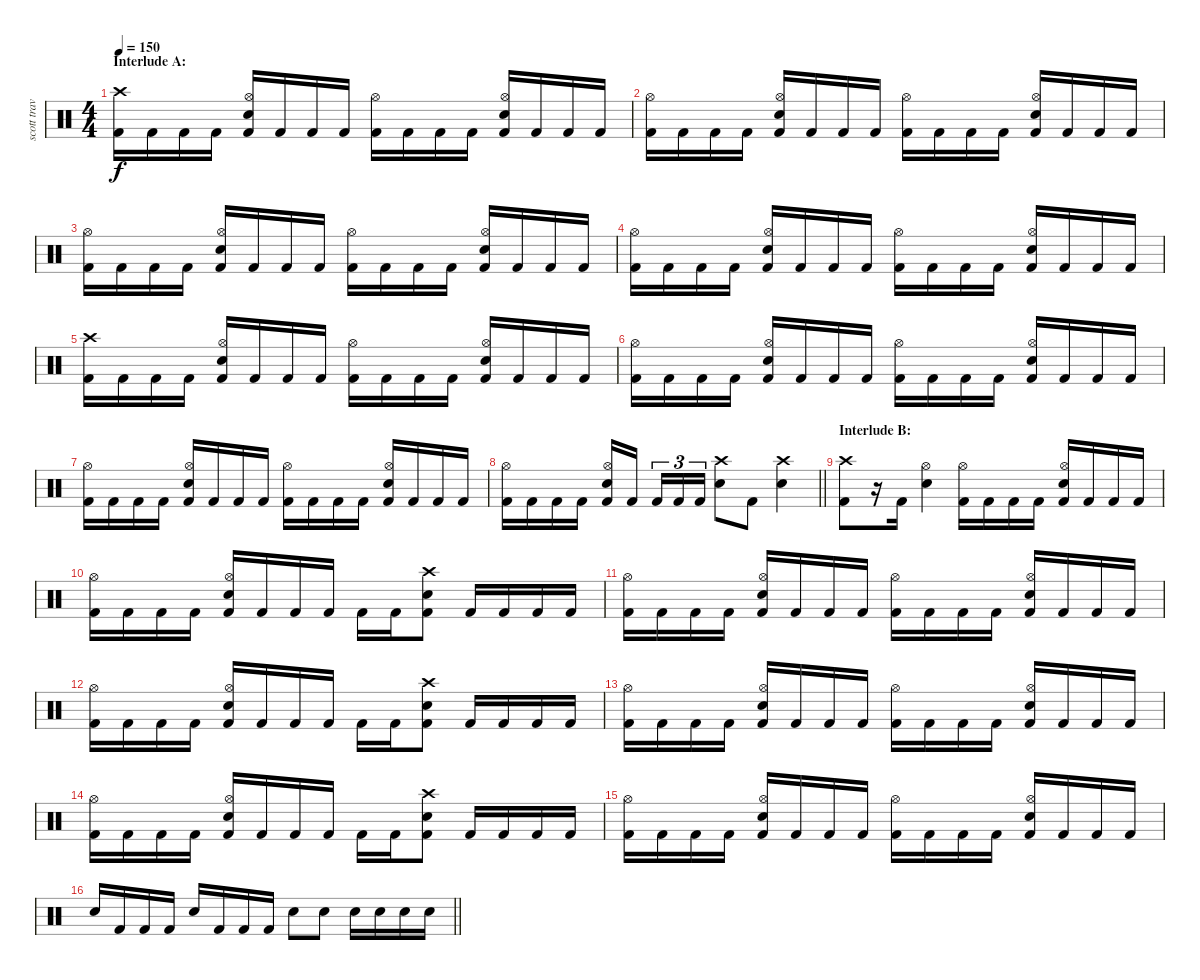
\track ("scott travis" "scott trav") {instrument percussion}
\staff {score}
\articulation defaults
\ts (4 4)
\section ("" "Interlude A:")
\tempo 150
\clef neutral
\ks c
("Crash high (hit)" "Kick (hit) 2").16{dy f} "Kick (hit) 2".16 "Kick (hit) 2".16 "Kick (hit) 2".16 ("Hi-Hat (open)" "Snare (hit) 2" "Kick (hit) 2").16 "Kick (hit) 2".16 "Kick (hit) 2".16 "Kick (hit) 2".16 ("Hi-Hat (open)" "Kick (hit) 2").16 "Kick (hit) 2".16 "Kick (hit) 2".16 "Kick (hit) 2".16 ("Hi-Hat (open)" "Snare (hit) 2" "Kick (hit) 2").16 "Kick (hit) 2".16 "Kick (hit) 2".16 "Kick (hit) 2".16 |
("Hi-Hat (open)" "Kick (hit) 2").16 "Kick (hit) 2".16 "Kick (hit) 2".16 "Kick (hit) 2".16 ("Hi-Hat (open)" "Snare (hit) 2" "Kick (hit) 2").16 "Kick (hit) 2".16 "Kick (hit) 2".16 "Kick (hit) 2".16 ("Hi-Hat (open)" "Kick (hit) 2").16 "Kick (hit) 2".16 "Kick (hit) 2".16 "Kick (hit) 2".16 ("Hi-Hat (open)" "Snare (hit) 2" "Kick (hit) 2").16 "Kick (hit) 2".16 "Kick (hit) 2".16 "Kick (hit) 2".16 |
("Hi-Hat (open)" "Kick (hit) 2").16 "Kick (hit) 2".16 "Kick (hit) 2".16 "Kick (hit) 2".16 ("Hi-Hat (open)" "Snare (hit) 2" "Kick (hit) 2").16 "Kick (hit) 2".16 "Kick (hit) 2".16 "Kick (hit) 2".16 ("Hi-Hat (open)" "Kick (hit) 2").16 "Kick (hit) 2".16 "Kick (hit) 2".16 "Kick (hit) 2".16 ("Hi-Hat (open)" "Snare (hit) 2" "Kick (hit) 2").16 "Kick (hit) 2".16 "Kick (hit) 2".16 "Kick (hit) 2".16 |
("Hi-Hat (open)" "Kick (hit) 2").16 "Kick (hit) 2".16 "Kick (hit) 2".16 "Kick (hit) 2".16 ("Hi-Hat (open)" "Snare (hit) 2" "Kick (hit) 2").16 "Kick (hit) 2".16 "Kick (hit) 2".16 "Kick (hit) 2".16 ("Hi-Hat (open)" "Kick (hit) 2").16 "Kick (hit) 2".16 "Kick (hit) 2".16 "Kick (hit) 2".16 ("Hi-Hat (open)" "Snare (hit) 2" "Kick (hit) 2").16 "Kick (hit) 2".16 "Kick (hit) 2".16 "Kick (hit) 2".16 |
("Crash high (hit)" "Kick (hit) 2").16 "Kick (hit) 2".16 "Kick (hit) 2".16 "Kick (hit) 2".16 ("Hi-Hat (open)" "Snare (hit) 2" "Kick (hit) 2").16 "Kick (hit) 2".16 "Kick (hit) 2".16 "Kick (hit) 2".16 ("Hi-Hat (open)" "Kick (hit) 2").16 "Kick (hit) 2".16 "Kick (hit) 2".16 "Kick (hit) 2".16 ("Hi-Hat (open)" "Snare (hit) 2" "Kick (hit) 2").16 "Kick (hit) 2".16 "Kick (hit) 2".16 "Kick (hit) 2".16 |
("Hi-Hat (open)" "Kick (hit) 2").16 "Kick (hit) 2".16 "Kick (hit) 2".16 "Kick (hit) 2".16 ("Hi-Hat (open)" "Snare (hit) 2" "Kick (hit) 2").16 "Kick (hit) 2".16 "Kick (hit) 2".16 "Kick (hit) 2".16 ("Hi-Hat (open)" "Kick (hit) 2").16 "Kick (hit) 2".16 "Kick (hit) 2".16 "Kick (hit) 2".16 ("Hi-Hat (open)" "Snare (hit) 2" "Kick (hit) 2").16 "Kick (hit) 2".16 "Kick (hit) 2".16 "Kick (hit) 2".16 |
("Hi-Hat (open)" "Kick (hit) 2").16 "Kick (hit) 2".16 "Kick (hit) 2".16 "Kick (hit) 2".16 ("Hi-Hat (open)" "Snare (hit) 2" "Kick (hit) 2").16 "Kick (hit) 2".16 "Kick (hit) 2".16 "Kick (hit) 2".16 ("Hi-Hat (open)" "Kick (hit) 2").16 "Kick (hit) 2".16 "Kick (hit) 2".16 "Kick (hit) 2".16 ("Hi-Hat (open)" "Snare (hit) 2" "Kick (hit) 2").16 "Kick (hit) 2".16 "Kick (hit) 2".16 "Kick (hit) 2".16 |
\barLineRight lightlight
("Hi-Hat (open)" "Kick (hit) 2").16 "Kick (hit) 2".16 "Kick (hit) 2".16 "Kick (hit) 2".16 ("Hi-Hat (open)" "Snare (hit) 2" "Kick (hit) 2").16 "Kick (hit) 2".16{beam splitsecondary} "Kick (hit) 2".16{tu (3 2)} "Kick (hit) 2".16{tu (3 2)} "Kick (hit) 2".16{tu (3 2)} ("Crash high (hit)" "Snare (hit) 2").8 "Kick (hit) 2".8 ("Crash high (hit)" "Snare (hit) 2").4 |
\section ("" "Interlude B:")
("Crash high (hit)" "Kick (hit) 2").8 r.16 "Kick (hit) 2".16 ("Hi-Hat (open)" "Snare (hit) 2").4 ("Hi-Hat (open)" "Kick (hit) 2").16 "Kick (hit) 2".16 "Kick (hit) 2".16 "Kick (hit) 2".16 ("Hi-Hat (open)" "Snare (hit) 2" "Kick (hit) 2").16 "Kick (hit) 2".16 "Kick (hit) 2".16 "Kick (hit) 2".16 |
("Hi-Hat (open)" "Kick (hit) 2").16 "Kick (hit) 2".16 "Kick (hit) 2".16 "Kick (hit) 2".16 ("Hi-Hat (open)" "Snare (hit) 2" "Kick (hit) 2").16 "Kick (hit) 2".16 "Kick (hit) 2".16 "Kick (hit) 2".16 "Kick (hit) 2".16 "Kick (hit) 2".16 ("Crash high (hit)" "Snare (hit) 2" "Kick (hit) 2").8 "Kick (hit) 2".16 "Kick (hit) 2".16 "Kick (hit) 2".16 "Kick (hit) 2".16 |
("Hi-Hat (open)" "Kick (hit) 2").16 "Kick (hit) 2".16 "Kick (hit) 2".16 "Kick (hit) 2".16 ("Hi-Hat (open)" "Snare (hit) 2" "Kick (hit) 2").16 "Kick (hit) 2".16 "Kick (hit) 2".16 "Kick (hit) 2".16 ("Hi-Hat (open)" "Kick (hit) 2").16 "Kick (hit) 2".16 "Kick (hit) 2".16 "Kick (hit) 2".16 ("Hi-Hat (open)" "Snare (hit) 2" "Kick (hit) 2").16 "Kick (hit) 2".16 "Kick (hit) 2".16 "Kick (hit) 2".16 |
("Hi-Hat (open)" "Kick (hit) 2").16 "Kick (hit) 2".16 "Kick (hit) 2".16 "Kick (hit) 2".16 ("Hi-Hat (open)" "Snare (hit) 2" "Kick (hit) 2").16 "Kick (hit) 2".16 "Kick (hit) 2".16 "Kick (hit) 2".16 "Kick (hit) 2".16 "Kick (hit) 2".16 ("Crash high (hit)" "Snare (hit) 2" "Kick (hit) 2").8 "Kick (hit) 2".16 "Kick (hit) 2".16 "Kick (hit) 2".16 "Kick (hit) 2".16 |
("Hi-Hat (open)" "Kick (hit) 2").16 "Kick (hit) 2".16 "Kick (hit) 2".16 "Kick (hit) 2".16 ("Hi-Hat (open)" "Snare (hit) 2" "Kick (hit) 2").16 "Kick (hit) 2".16 "Kick (hit) 2".16 "Kick (hit) 2".16 ("Hi-Hat (open)" "Kick (hit) 2").16 "Kick (hit) 2".16 "Kick (hit) 2".16 "Kick (hit) 2".16 ("Hi-Hat (open)" "Snare (hit) 2" "Kick (hit) 2").16 "Kick (hit) 2".16 "Kick (hit) 2".16 "Kick (hit) 2".16 |
("Hi-Hat (open)" "Kick (hit) 2").16 "Kick (hit) 2".16 "Kick (hit) 2".16 "Kick (hit) 2".16 ("Hi-Hat (open)" "Snare (hit) 2" "Kick (hit) 2").16 "Kick (hit) 2".16 "Kick (hit) 2".16 "Kick (hit) 2".16 "Kick (hit) 2".16 "Kick (hit) 2".16 ("Crash high (hit)" "Snare (hit) 2" "Kick (hit) 2").8 "Kick (hit) 2".16 "Kick (hit) 2".16 "Kick (hit) 2".16 "Kick (hit) 2".16 |
("Hi-Hat (open)" "Kick (hit) 2").16 "Kick (hit) 2".16 "Kick (hit) 2".16 "Kick (hit) 2".16 ("Hi-Hat (open)" "Snare (hit) 2" "Kick (hit) 2").16 "Kick (hit) 2".16 "Kick (hit) 2".16 "Kick (hit) 2".16 ("Hi-Hat (open)" "Kick (hit) 2").16 "Kick (hit) 2".16 "Kick (hit) 2".16 "Kick (hit) 2".16 ("Hi-Hat (open)" "Snare (hit) 2" "Kick (hit) 2").16 "Kick (hit) 2".16 "Kick (hit) 2".16 "Kick (hit) 2".16 |
\barLineRight lightlight "Snare (hit) 2".16 "Kick (hit) 2".16 "Kick (hit) 2".16 "Kick (hit) 2".16 "Snare (hit) 2".16 "Kick (hit) 2".16 "Kick (hit) 2".16 "Kick (hit) 2".16 "Snare (hit) 2".8 "Snare (hit) 2".8 "Snare (hit) 2".16 "Snare (hit) 2".16 "Snare (hit) 2".16 "Snare (hit) 2".16
